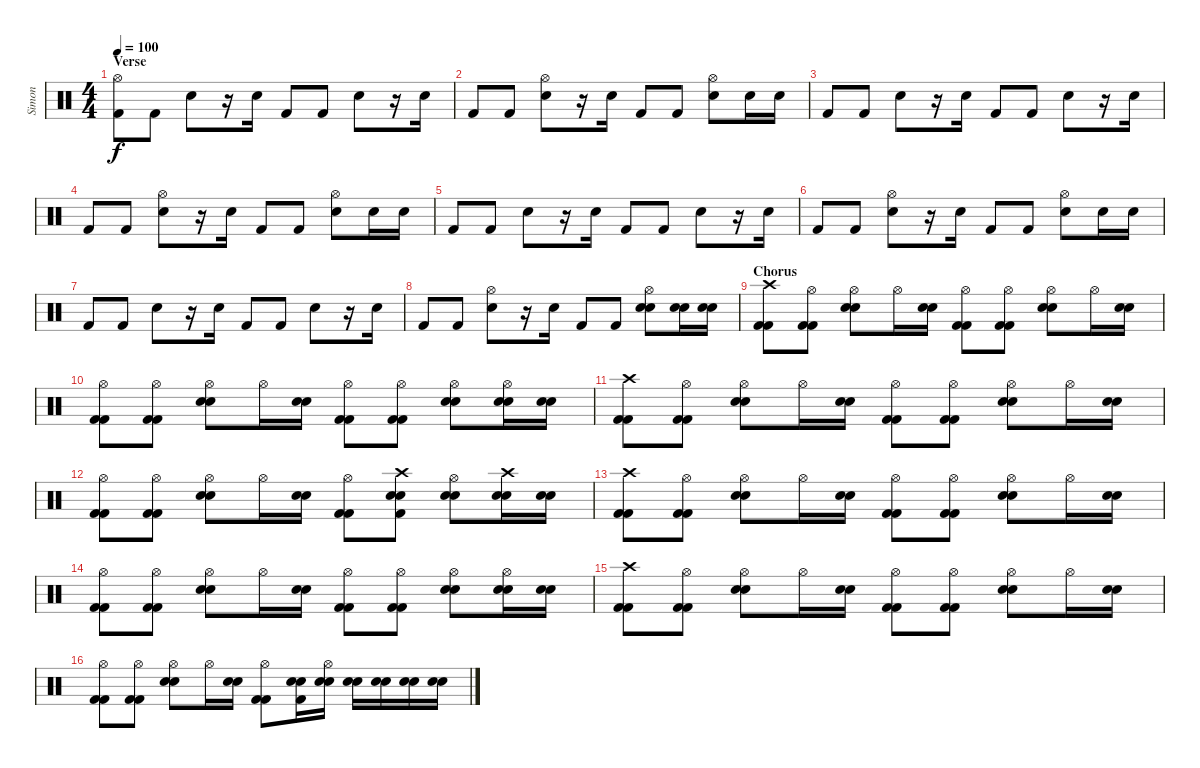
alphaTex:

\track ("Simon" "Simon") {instrument percussion}
\staff {score}
\articulation defaults
\ts (4 4)
\section ("" "Verse")
\tempo 100
\clef neutral
\ks c
("Hi-Hat (open)" "Kick (hit) 2").8{dy f} "Kick (hit) 2".8 "Electric Snare (hit)".8 r.16 "Electric Snare (hit)".16 "Kick (hit) 2".8 "Kick (hit) 2".8 "Electric Snare (hit)".8 r.16 "Electric Snare (hit)".16 |
"Kick (hit) 2".8 "Kick (hit) 2".8 ("Hi-Hat (open)" "Electric Snare (hit)").8 r.16 "Electric Snare (hit)".16 "Kick (hit) 2".8 "Kick (hit) 2".8 ("Hi-Hat (open)" "Electric Snare (hit)").8 "Electric Snare (hit)".16 "Electric Snare (hit)".16 |
"Kick (hit) 2".8 "Kick (hit) 2".8 "Electric Snare (hit)".8 r.16 "Electric Snare (hit)".16 "Kick (hit) 2".8 "Kick (hit) 2".8 "Electric Snare (hit)".8 r.16 "Electric Snare (hit)".16 |
"Kick (hit) 2".8 "Kick (hit) 2".8 ("Hi-Hat (open)" "Electric Snare (hit)").8 r.16 "Electric Snare (hit)".16 "Kick (hit) 2".8 "Kick (hit) 2".8 ("Hi-Hat (open)" "Electric Snare (hit)").8 "Electric Snare (hit)".16 "Electric Snare (hit)".16 |
"Kick (hit) 2".8 "Kick (hit) 2".8 "Electric Snare (hit)".8 r.16 "Electric Snare (hit)".16 "Kick (hit) 2".8 "Kick (hit) 2".8 "Electric Snare (hit)".8 r.16 "Electric Snare (hit)".16 |
"Kick (hit) 2".8 "Kick (hit) 2".8 ("Hi-Hat (open)" "Electric Snare (hit)").8 r.16 "Electric Snare (hit)".16 "Kick (hit) 2".8 "Kick (hit) 2".8 ("Hi-Hat (open)" "Electric Snare (hit)").8 "Electric Snare (hit)".16 "Electric Snare (hit)".16 |
"Kick (hit) 2".8 "Kick (hit) 2".8 "Electric Snare (hit)".8 r.16 "Electric Snare (hit)".16 "Kick (hit) 2".8 "Kick (hit) 2".8 "Electric Snare (hit)".8 r.16 "Electric Snare (hit)".16 |
"Kick (hit) 2".8 "Kick (hit) 2".8 ("Hi-Hat (open)" "Electric Snare (hit)").8 r.16 "Electric Snare (hit)".16 "Kick (hit) 2".8 "Kick (hit) 2".8 ("Hi-Hat (open)" "Electric Snare (hit)" "Electric Snare (hit)").8 ("Electric Snare (hit)" "Electric Snare (hit)").16 ("Electric Snare (hit)" "Electric Snare (hit)").16 |
\section ("" "Chorus")
("Crash high (hit)" "Kick (hit) 2" "Kick (hit) 2").8 ("Hi-Hat (open)" "Kick (hit) 2" "Kick (hit) 2").8 ("Hi-Hat (open)" "Electric Snare (hit)" "Electric Snare (hit)").8 "Hi-Hat (open)".16 ("Electric Snare (hit)" "Electric Snare (hit)").16 ("Hi-Hat (open)" "Kick (hit) 2" "Kick (hit) 2").8 ("Hi-Hat (open)" "Kick (hit) 2" "Kick (hit) 2").8 ("Hi-Hat (open)" "Electric Snare (hit)" "Electric Snare (hit)").8 "Hi-Hat (open)".16 ("Electric Snare (hit)" "Electric Snare (hit)").16 |
("Hi-Hat (open)" "Kick (hit) 2" "Kick (hit) 2").8 ("Hi-Hat (open)" "Kick (hit) 2" "Kick (hit) 2").8 ("Hi-Hat (open)" "Electric Snare (hit)" "Electric Snare (hit)").8 "Hi-Hat (open)".16 ("Electric Snare (hit)" "Electric Snare (hit)").16 ("Hi-Hat (open)" "Kick (hit) 2" "Kick (hit) 2").8 ("Hi-Hat (open)" "Kick (hit) 2" "Kick (hit) 2").8 ("Hi-Hat (open)" "Electric Snare (hit)" "Electric Snare (hit)").8 ("Hi-Hat (open)" "Electric Snare (hit)" "Electric Snare (hit)").16 ("Electric Snare (hit)" "Electric Snare (hit)").16 |
("Crash high (hit)" "Kick (hit) 2" "Kick (hit) 2").8 ("Hi-Hat (open)" "Kick (hit) 2" "Kick (hit) 2").8 ("Hi-Hat (open)" "Electric Snare (hit)" "Electric Snare (hit)").8 "Hi-Hat (open)".16 ("Electric Snare (hit)" "Electric Snare (hit)").16 ("Hi-Hat (open)" "Kick (hit) 2" "Kick (hit) 2").8 ("Hi-Hat (open)" "Kick (hit) 2" "Kick (hit) 2").8 ("Hi-Hat (open)" "Electric Snare (hit)" "Electric Snare (hit)").8 "Hi-Hat (open)".16 ("Electric Snare (hit)" "Electric Snare (hit)").16 |
("Hi-Hat (open)" "Kick (hit) 2" "Kick (hit) 2").8 ("Hi-Hat (open)" "Kick (hit) 2" "Kick (hit) 2").8 ("Hi-Hat (open)" "Electric Snare (hit)" "Electric Snare (hit)").8 "Hi-Hat (open)".16 ("Electric Snare (hit)" "Electric Snare (hit)").16 ("Hi-Hat (open)" "Kick (hit) 2" "Kick (hit) 2").8 ("Crash high (hit)" "Kick (hit) 2" "Electric Snare (hit)" "Electric Snare (hit)").8 ("Hi-Hat (open)" "Electric Snare (hit)" "Electric Snare (hit)").8 ("Crash high (hit)" "Electric Snare (hit)" "Electric Snare (hit)").16 ("Electric Snare (hit)" "Electric Snare (hit)").16 |
("Crash high (hit)" "Kick (hit) 2" "Kick (hit) 2").8 ("Hi-Hat (open)" "Kick (hit) 2" "Kick (hit) 2").8 ("Hi-Hat (open)" "Electric Snare (hit)" "Electric Snare (hit)").8 "Hi-Hat (open)".16 ("Electric Snare (hit)" "Electric Snare (hit)").16 ("Hi-Hat (open)" "Kick (hit) 2" "Kick (hit) 2").8 ("Hi-Hat (open)" "Kick (hit) 2" "Kick (hit) 2").8 ("Hi-Hat (open)" "Electric Snare (hit)" "Electric Snare (hit)").8 "Hi-Hat (open)".16 ("Electric Snare (hit)" "Electric Snare (hit)").16 |
("Hi-Hat (open)" "Kick (hit) 2" "Kick (hit) 2").8 ("Hi-Hat (open)" "Kick (hit) 2" "Kick (hit) 2").8 ("Hi-Hat (open)" "Electric Snare (hit)" "Electric Snare (hit)").8 "Hi-Hat (open)".16 ("Electric Snare (hit)" "Electric Snare (hit)").16 ("Hi-Hat (open)" "Kick (hit) 2" "Kick (hit) 2").8 ("Hi-Hat (open)" "Kick (hit) 2" "Kick (hit) 2").8 ("Hi-Hat (open)" "Electric Snare (hit)" "Electric Snare (hit)").8 ("Hi-Hat (open)" "Electric Snare (hit)" "Electric Snare (hit)").16 ("Electric Snare (hit)" "Electric Snare (hit)").16 |
("Crash high (hit)" "Kick (hit) 2" "Kick (hit) 2").8 ("Hi-Hat (open)" "Kick (hit) 2" "Kick (hit) 2").8 ("Hi-Hat (open)" "Electric Snare (hit)" "Electric Snare (hit)").8 "Hi-Hat (open)".16 ("Electric Snare (hit)" "Electric Snare (hit)").16 ("Hi-Hat (open)" "Kick (hit) 2" "Kick (hit) 2").8 ("Hi-Hat (open)" "Kick (hit) 2" "Kick (hit) 2").8 ("Hi-Hat (open)" "Electric Snare (hit)" "Electric Snare (hit)").8 "Hi-Hat (open)".16 ("Electric Snare (hit)" "Electric Snare (hit)").16 |
("Hi-Hat (open)" "Kick (hit) 2" "Kick (hit) 2").8 ("Hi-Hat (open)" "Kick (hit) 2" "Kick (hit) 2").8 ("Hi-Hat (open)" "Electric Snare (hit)" "Electric Snare (hit)").8 "Hi-Hat (open)".16 ("Electric Snare (hit)" "Electric Snare (hit)").16 ("Hi-Hat (open)" "Kick (hit) 2" "Kick (hit) 2").8 ("Kick (hit) 2" "Electric Snare (hit)" "Electric Snare (hit)").16 ("Hi-Hat (open)" "Electric Snare (hit)" "Electric Snare (hit)").16 ("Electric Snare (hit)" "Electric Snare (hit)").16 ("Electric Snare (hit)" "Electric Snare (hit)").16 ("Electric Snare (hit)" "Electric Snare (hit)").16 ("Electric Snare (hit)" "Electric Snare (hit)").16
